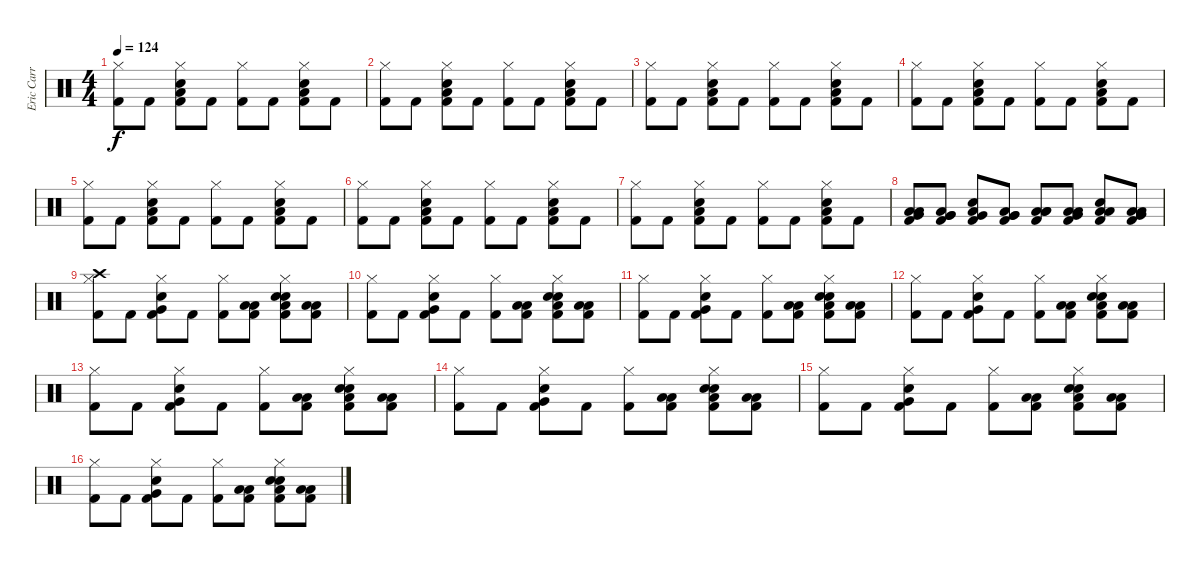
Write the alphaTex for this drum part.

\track ("Eric Carr" "Eric Carr") {instrument percussion}
\staff {score}
\articulation defaults
\ts (4 4)
\tempo 124
\clef neutral
\ks c
("Hi-Hat (closed)" "Kick (hit) 2").8{dy f} "Kick (hit) 2".8 ("Hi-Hat (closed)" "Snare (hit) 2" "Low Floor Tom (hit)" "Kick (hit) 2").8 "Kick (hit) 2".8 ("Hi-Hat (closed)" "Kick (hit) 2").8 "Kick (hit) 2".8 ("Hi-Hat (closed)" "Snare (hit) 2" "Low Floor Tom (hit)" "Kick (hit) 2").8 "Kick (hit) 2".8 |
("Hi-Hat (closed)" "Kick (hit) 2").8 "Kick (hit) 2".8 ("Hi-Hat (closed)" "Snare (hit) 2" "Low Floor Tom (hit)" "Kick (hit) 2").8 "Kick (hit) 2".8 ("Hi-Hat (closed)" "Kick (hit) 2").8 "Kick (hit) 2".8 ("Hi-Hat (closed)" "Snare (hit) 2" "Low Floor Tom (hit)" "Kick (hit) 2").8 "Kick (hit) 2".8 |
("Hi-Hat (closed)" "Kick (hit) 2").8 "Kick (hit) 2".8 ("Hi-Hat (closed)" "Snare (hit) 2" "Low Floor Tom (hit)" "Kick (hit) 2").8 "Kick (hit) 2".8 ("Hi-Hat (closed)" "Kick (hit) 2").8 "Kick (hit) 2".8 ("Hi-Hat (closed)" "Snare (hit) 2" "Low Floor Tom (hit)" "Kick (hit) 2").8 "Kick (hit) 2".8 |
("Hi-Hat (closed)" "Kick (hit) 2").8 "Kick (hit) 2".8 ("Hi-Hat (closed)" "Snare (hit) 2" "Low Floor Tom (hit)" "Kick (hit) 2").8 "Kick (hit) 2".8 ("Hi-Hat (closed)" "Kick (hit) 2").8 "Kick (hit) 2".8 ("Hi-Hat (closed)" "Snare (hit) 2" "Low Floor Tom (hit)" "Kick (hit) 2").8 "Kick (hit) 2".8 |
("Hi-Hat (closed)" "Kick (hit) 2").8 "Kick (hit) 2".8 ("Hi-Hat (closed)" "Snare (hit) 2" "Low Floor Tom (hit)" "Kick (hit) 2").8 "Kick (hit) 2".8 ("Hi-Hat (closed)" "Kick (hit) 2").8 "Kick (hit) 2".8 ("Hi-Hat (closed)" "Snare (hit) 2" "Low Floor Tom (hit)" "Kick (hit) 2").8 "Kick (hit) 2".8 |
("Hi-Hat (closed)" "Kick (hit) 2").8 "Kick (hit) 2".8 ("Hi-Hat (closed)" "Snare (hit) 2" "Low Floor Tom (hit)" "Kick (hit) 2").8 "Kick (hit) 2".8 ("Hi-Hat (closed)" "Kick (hit) 2").8 "Kick (hit) 2".8 ("Hi-Hat (closed)" "Snare (hit) 2" "Low Floor Tom (hit)" "Kick (hit) 2").8 "Kick (hit) 2".8 |
("Hi-Hat (closed)" "Kick (hit) 2").8 "Kick (hit) 2".8 ("Hi-Hat (closed)" "Snare (hit) 2" "Low Floor Tom (hit)" "Kick (hit) 2").8 "Kick (hit) 2".8 ("Hi-Hat (closed)" "Kick (hit) 2").8 "Kick (hit) 2".8 ("Hi-Hat (closed)" "Snare (hit) 2" "Low Floor Tom (hit)" "Kick (hit) 2").8 "Kick (hit) 2".8 |
("Low Floor Tom (hit)" "Low Tom (hit)" "Very Low Tom (hit)" "Kick (hit) 2").8 ("Very Low Tom (hit)" "Very Low Tom (hit)" "Low Floor Tom (hit)" "Kick (hit) 2").8 ("Low Floor Tom (hit)" "Very Low Tom (hit)" "Snare (hit) 2" "Kick (hit) 2").8 ("Very Low Tom (hit)" "Very Low Tom (hit)" "Low Floor Tom (hit)" "Kick (hit) 2").8 ("Low Tom (hit)" "Low Tom (hit)" "Low Floor Tom (hit)" "Kick (hit) 2").8 ("Very Low Tom (hit)" "Low Tom (hit)" "Low Tom (hit)" "Kick (hit) 2").8 ("Low Floor Tom (hit)" "Low Floor Tom (hit)" "Snare (hit) 2" "Kick (hit) 2").8 ("Very Low Tom (hit)" "Low Tom (hit)" "Low Tom (hit)" "Kick (hit) 2").8 |
("Hi-Hat (closed)" "Crash high (hit)" "Kick (hit) 2").8 "Kick (hit) 2".8 ("Hi-Hat (closed)" "Very Low Tom (hit)" "Snare (hit) 2" "Kick (hit) 2").8 "Kick (hit) 2".8 ("Hi-Hat (closed)" "Kick (hit) 2").8 ("Low Tom (hit)" "Low Tom (hit)" "Kick (hit) 2").8 ("Hi-Hat (closed)" "Snare (hit) 2" "Low Floor Tom (hit)" "Snare (hit) 2" "Kick (hit) 2").8 ("Low Tom (hit)" "Low Tom (hit)" "Kick (hit) 2").8 |
("Hi-Hat (closed)" "Kick (hit) 2").8 "Kick (hit) 2".8 ("Hi-Hat (closed)" "Very Low Tom (hit)" "Snare (hit) 2" "Kick (hit) 2").8 "Kick (hit) 2".8 ("Hi-Hat (closed)" "Kick (hit) 2").8 ("Low Tom (hit)" "Low Tom (hit)" "Kick (hit) 2").8 ("Hi-Hat (closed)" "Snare (hit) 2" "Low Floor Tom (hit)" "Snare (hit) 2" "Kick (hit) 2").8 ("Low Tom (hit)" "Low Tom (hit)" "Kick (hit) 2").8 |
("Hi-Hat (closed)" "Kick (hit) 2").8 "Kick (hit) 2".8 ("Hi-Hat (closed)" "Very Low Tom (hit)" "Snare (hit) 2" "Kick (hit) 2").8 "Kick (hit) 2".8 ("Hi-Hat (closed)" "Kick (hit) 2").8 ("Low Tom (hit)" "Low Tom (hit)" "Kick (hit) 2").8 ("Hi-Hat (closed)" "Snare (hit) 2" "Low Floor Tom (hit)" "Snare (hit) 2" "Kick (hit) 2").8 ("Low Tom (hit)" "Low Tom (hit)" "Kick (hit) 2").8 |
("Hi-Hat (closed)" "Kick (hit) 2").8 "Kick (hit) 2".8 ("Hi-Hat (closed)" "Very Low Tom (hit)" "Snare (hit) 2" "Kick (hit) 2").8 "Kick (hit) 2".8 ("Hi-Hat (closed)" "Kick (hit) 2").8 ("Low Tom (hit)" "Low Tom (hit)" "Kick (hit) 2").8 ("Hi-Hat (closed)" "Snare (hit) 2" "Low Floor Tom (hit)" "Snare (hit) 2" "Kick (hit) 2").8 ("Low Tom (hit)" "Low Tom (hit)" "Kick (hit) 2").8 |
("Hi-Hat (closed)" "Kick (hit) 2").8 "Kick (hit) 2".8 ("Hi-Hat (closed)" "Very Low Tom (hit)" "Snare (hit) 2" "Kick (hit) 2").8 "Kick (hit) 2".8 ("Hi-Hat (closed)" "Kick (hit) 2").8 ("Low Tom (hit)" "Low Tom (hit)" "Kick (hit) 2").8 ("Hi-Hat (closed)" "Snare (hit) 2" "Low Floor Tom (hit)" "Snare (hit) 2" "Kick (hit) 2").8 ("Low Tom (hit)" "Low Tom (hit)" "Kick (hit) 2").8 |
("Hi-Hat (closed)" "Kick (hit) 2").8 "Kick (hit) 2".8 ("Hi-Hat (closed)" "Very Low Tom (hit)" "Snare (hit) 2" "Kick (hit) 2").8 "Kick (hit) 2".8 ("Hi-Hat (closed)" "Kick (hit) 2").8 ("Low Tom (hit)" "Low Tom (hit)" "Kick (hit) 2").8 ("Hi-Hat (closed)" "Snare (hit) 2" "Low Floor Tom (hit)" "Snare (hit) 2" "Kick (hit) 2").8 ("Low Tom (hit)" "Low Tom (hit)" "Kick (hit) 2").8 |
("Hi-Hat (closed)" "Kick (hit) 2").8 "Kick (hit) 2".8 ("Hi-Hat (closed)" "Very Low Tom (hit)" "Snare (hit) 2" "Kick (hit) 2").8 "Kick (hit) 2".8 ("Hi-Hat (closed)" "Kick (hit) 2").8 ("Low Tom (hit)" "Low Tom (hit)" "Kick (hit) 2").8 ("Hi-Hat (closed)" "Snare (hit) 2" "Low Floor Tom (hit)" "Snare (hit) 2" "Kick (hit) 2").8 ("Low Tom (hit)" "Low Tom (hit)" "Kick (hit) 2").8 |
("Hi-Hat (closed)" "Kick (hit) 2").8 "Kick (hit) 2".8 ("Hi-Hat (closed)" "Very Low Tom (hit)" "Snare (hit) 2" "Kick (hit) 2").8 "Kick (hit) 2".8 ("Hi-Hat (closed)" "Kick (hit) 2").8 ("Low Tom (hit)" "Low Tom (hit)" "Kick (hit) 2").8 ("Hi-Hat (closed)" "Snare (hit) 2" "Low Floor Tom (hit)" "Snare (hit) 2" "Kick (hit) 2").8 ("Low Tom (hit)" "Low Tom (hit)" "Kick (hit) 2").8
